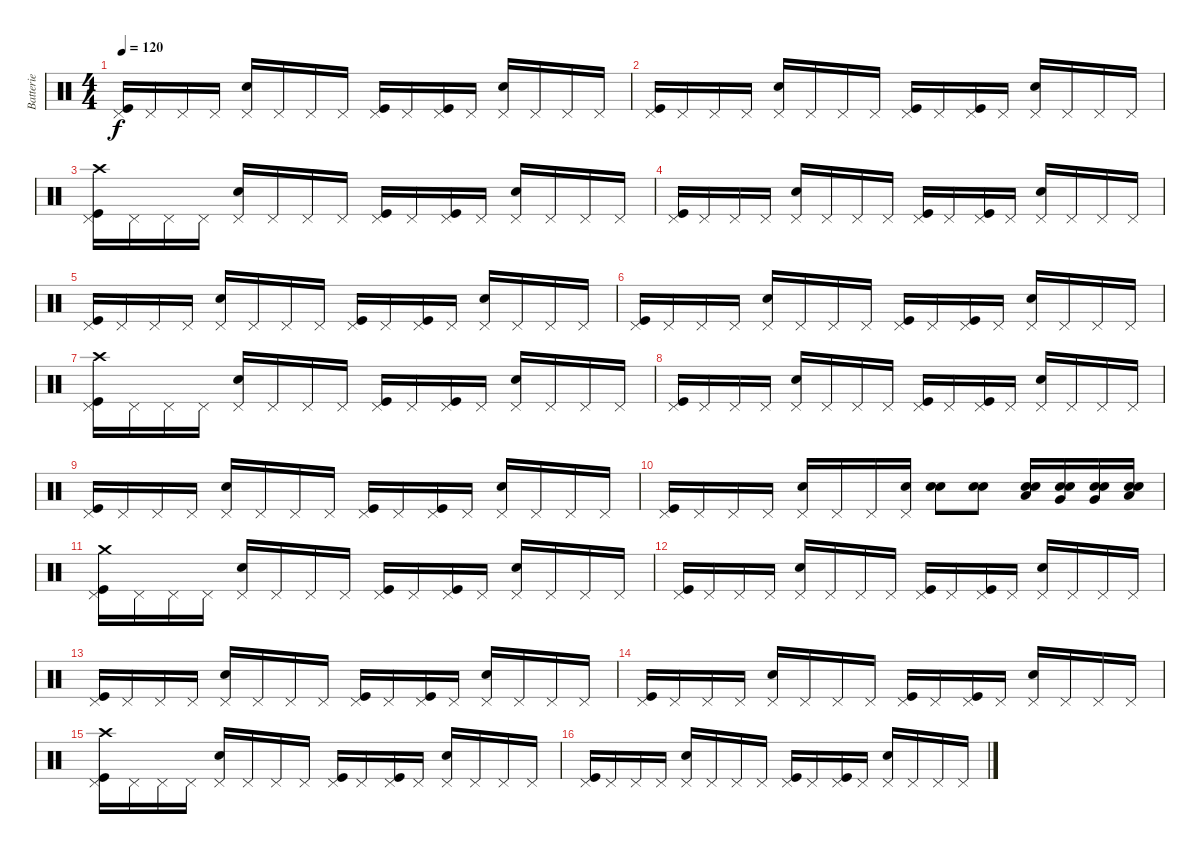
\track ("Batterie" "Batterie") {instrument percussion}
\staff {score}
\articulation defaults
\ts (4 4)
\tempo 120
\clef neutral
\ks c
("Pedal Hi-Hat (hit)" "Kick (hit)").16{dy f} "Pedal Hi-Hat (hit)".16 "Pedal Hi-Hat (hit)".16 "Pedal Hi-Hat (hit)".16 ("Electric Snare (hit)" "Pedal Hi-Hat (hit)").16 "Pedal Hi-Hat (hit)".16 "Pedal Hi-Hat (hit)".16 "Pedal Hi-Hat (hit)".16 ("Pedal Hi-Hat (hit)" "Kick (hit)").16 "Pedal Hi-Hat (hit)".16 ("Pedal Hi-Hat (hit)" "Kick (hit)").16 "Pedal Hi-Hat (hit)".16 ("Electric Snare (hit)" "Pedal Hi-Hat (hit)").16 "Pedal Hi-Hat (hit)".16 "Pedal Hi-Hat (hit)".16 "Pedal Hi-Hat (hit)".16 |
("Pedal Hi-Hat (hit)" "Kick (hit)").16 "Pedal Hi-Hat (hit)".16 "Pedal Hi-Hat (hit)".16 "Pedal Hi-Hat (hit)".16 ("Electric Snare (hit)" "Pedal Hi-Hat (hit)").16 "Pedal Hi-Hat (hit)".16 "Pedal Hi-Hat (hit)".16 "Pedal Hi-Hat (hit)".16 ("Pedal Hi-Hat (hit)" "Kick (hit)").16 "Pedal Hi-Hat (hit)".16 ("Pedal Hi-Hat (hit)" "Kick (hit)").16 "Pedal Hi-Hat (hit)".16 ("Electric Snare (hit)" "Pedal Hi-Hat (hit)").16 "Pedal Hi-Hat (hit)".16 "Pedal Hi-Hat (hit)".16 "Pedal Hi-Hat (hit)".16 |
("Crash high (hit)" "Pedal Hi-Hat (hit)" "Kick (hit)").16 "Pedal Hi-Hat (hit)".16 "Pedal Hi-Hat (hit)".16 "Pedal Hi-Hat (hit)".16 ("Electric Snare (hit)" "Pedal Hi-Hat (hit)").16 "Pedal Hi-Hat (hit)".16 "Pedal Hi-Hat (hit)".16 "Pedal Hi-Hat (hit)".16 ("Pedal Hi-Hat (hit)" "Kick (hit)").16 "Pedal Hi-Hat (hit)".16 ("Pedal Hi-Hat (hit)" "Kick (hit)").16 "Pedal Hi-Hat (hit)".16 ("Electric Snare (hit)" "Pedal Hi-Hat (hit)").16 "Pedal Hi-Hat (hit)".16 "Pedal Hi-Hat (hit)".16 "Pedal Hi-Hat (hit)".16 |
("Pedal Hi-Hat (hit)" "Kick (hit)").16 "Pedal Hi-Hat (hit)".16 "Pedal Hi-Hat (hit)".16 "Pedal Hi-Hat (hit)".16 ("Electric Snare (hit)" "Pedal Hi-Hat (hit)").16 "Pedal Hi-Hat (hit)".16 "Pedal Hi-Hat (hit)".16 "Pedal Hi-Hat (hit)".16 ("Pedal Hi-Hat (hit)" "Kick (hit)").16 "Pedal Hi-Hat (hit)".16 ("Pedal Hi-Hat (hit)" "Kick (hit)").16 "Pedal Hi-Hat (hit)".16 ("Electric Snare (hit)" "Pedal Hi-Hat (hit)").16 "Pedal Hi-Hat (hit)".16 "Pedal Hi-Hat (hit)".16 "Pedal Hi-Hat (hit)".16 |
("Pedal Hi-Hat (hit)" "Kick (hit)").16 "Pedal Hi-Hat (hit)".16 "Pedal Hi-Hat (hit)".16 "Pedal Hi-Hat (hit)".16 ("Electric Snare (hit)" "Pedal Hi-Hat (hit)").16 "Pedal Hi-Hat (hit)".16 "Pedal Hi-Hat (hit)".16 "Pedal Hi-Hat (hit)".16 ("Pedal Hi-Hat (hit)" "Kick (hit)").16 "Pedal Hi-Hat (hit)".16 ("Pedal Hi-Hat (hit)" "Kick (hit)").16 "Pedal Hi-Hat (hit)".16 ("Electric Snare (hit)" "Pedal Hi-Hat (hit)").16 "Pedal Hi-Hat (hit)".16 "Pedal Hi-Hat (hit)".16 "Pedal Hi-Hat (hit)".16 |
("Pedal Hi-Hat (hit)" "Kick (hit)").16 "Pedal Hi-Hat (hit)".16 "Pedal Hi-Hat (hit)".16 "Pedal Hi-Hat (hit)".16 ("Electric Snare (hit)" "Pedal Hi-Hat (hit)").16 "Pedal Hi-Hat (hit)".16 "Pedal Hi-Hat (hit)".16 "Pedal Hi-Hat (hit)".16 ("Pedal Hi-Hat (hit)" "Kick (hit)").16 "Pedal Hi-Hat (hit)".16 ("Pedal Hi-Hat (hit)" "Kick (hit)").16 "Pedal Hi-Hat (hit)".16 ("Electric Snare (hit)" "Pedal Hi-Hat (hit)").16 "Pedal Hi-Hat (hit)".16 "Pedal Hi-Hat (hit)".16 "Pedal Hi-Hat (hit)".16 |
("Crash high (hit)" "Pedal Hi-Hat (hit)" "Kick (hit)").16 "Pedal Hi-Hat (hit)".16 "Pedal Hi-Hat (hit)".16 "Pedal Hi-Hat (hit)".16 ("Electric Snare (hit)" "Pedal Hi-Hat (hit)").16 "Pedal Hi-Hat (hit)".16 "Pedal Hi-Hat (hit)".16 "Pedal Hi-Hat (hit)".16 ("Pedal Hi-Hat (hit)" "Kick (hit)").16 "Pedal Hi-Hat (hit)".16 ("Pedal Hi-Hat (hit)" "Kick (hit)").16 "Pedal Hi-Hat (hit)".16 ("Electric Snare (hit)" "Pedal Hi-Hat (hit)").16 "Pedal Hi-Hat (hit)".16 "Pedal Hi-Hat (hit)".16 "Pedal Hi-Hat (hit)".16 |
("Pedal Hi-Hat (hit)" "Kick (hit)").16 "Pedal Hi-Hat (hit)".16 "Pedal Hi-Hat (hit)".16 "Pedal Hi-Hat (hit)".16 ("Electric Snare (hit)" "Pedal Hi-Hat (hit)").16 "Pedal Hi-Hat (hit)".16 "Pedal Hi-Hat (hit)".16 "Pedal Hi-Hat (hit)".16 ("Pedal Hi-Hat (hit)" "Kick (hit)").16 "Pedal Hi-Hat (hit)".16 ("Pedal Hi-Hat (hit)" "Kick (hit)").16 "Pedal Hi-Hat (hit)".16 ("Electric Snare (hit)" "Pedal Hi-Hat (hit)").16 "Pedal Hi-Hat (hit)".16 "Pedal Hi-Hat (hit)".16 "Pedal Hi-Hat (hit)".16 |
("Pedal Hi-Hat (hit)" "Kick (hit)").16 "Pedal Hi-Hat (hit)".16 "Pedal Hi-Hat (hit)".16 "Pedal Hi-Hat (hit)".16 ("Electric Snare (hit)" "Pedal Hi-Hat (hit)").16 "Pedal Hi-Hat (hit)".16 "Pedal Hi-Hat (hit)".16 "Pedal Hi-Hat (hit)".16 ("Pedal Hi-Hat (hit)" "Kick (hit)").16 "Pedal Hi-Hat (hit)".16 ("Pedal Hi-Hat (hit)" "Kick (hit)").16 "Pedal Hi-Hat (hit)".16 ("Electric Snare (hit)" "Pedal Hi-Hat (hit)").16 "Pedal Hi-Hat (hit)".16 "Pedal Hi-Hat (hit)".16 "Pedal Hi-Hat (hit)".16 |
("Pedal Hi-Hat (hit)" "Kick (hit)").16 "Pedal Hi-Hat (hit)".16 "Pedal Hi-Hat (hit)".16 "Pedal Hi-Hat (hit)".16 ("Electric Snare (hit)" "Pedal Hi-Hat (hit)").16 "Pedal Hi-Hat (hit)".16 "Pedal Hi-Hat (hit)".16 ("Snare (hit) 2" "Pedal Hi-Hat (hit)").16 ("Electric Snare (hit)" "Snare (hit) 2").8 ("Electric Snare (hit)" "Snare (hit) 2").8 ("Electric Snare (hit)" "Snare (hit) 2" "Low Tom (hit)").16 ("Electric Snare (hit)" "Snare (hit) 2" "Very Low Tom (hit)").16 ("Electric Snare (hit)" "Snare (hit) 2" "Very Low Tom (hit)").16 ("Electric Snare (hit)" "Snare (hit) 2" "Low Floor Tom (hit)").16 |
("Crash medium (hit)" "Pedal Hi-Hat (hit)" "Kick (hit)").16 "Pedal Hi-Hat (hit)".16 "Pedal Hi-Hat (hit)".16 "Pedal Hi-Hat (hit)".16 ("Electric Snare (hit)" "Pedal Hi-Hat (hit)").16 "Pedal Hi-Hat (hit)".16 "Pedal Hi-Hat (hit)".16 "Pedal Hi-Hat (hit)".16 ("Pedal Hi-Hat (hit)" "Kick (hit)").16 "Pedal Hi-Hat (hit)".16 ("Pedal Hi-Hat (hit)" "Kick (hit)").16 "Pedal Hi-Hat (hit)".16 ("Electric Snare (hit)" "Pedal Hi-Hat (hit)").16 "Pedal Hi-Hat (hit)".16 "Pedal Hi-Hat (hit)".16 "Pedal Hi-Hat (hit)".16 |
("Pedal Hi-Hat (hit)" "Kick (hit)").16 "Pedal Hi-Hat (hit)".16 "Pedal Hi-Hat (hit)".16 "Pedal Hi-Hat (hit)".16 ("Electric Snare (hit)" "Pedal Hi-Hat (hit)").16 "Pedal Hi-Hat (hit)".16 "Pedal Hi-Hat (hit)".16 "Pedal Hi-Hat (hit)".16 ("Pedal Hi-Hat (hit)" "Kick (hit)").16 "Pedal Hi-Hat (hit)".16 ("Pedal Hi-Hat (hit)" "Kick (hit)").16 "Pedal Hi-Hat (hit)".16 ("Electric Snare (hit)" "Pedal Hi-Hat (hit)").16 "Pedal Hi-Hat (hit)".16 "Pedal Hi-Hat (hit)".16 "Pedal Hi-Hat (hit)".16 |
("Pedal Hi-Hat (hit)" "Kick (hit)").16 "Pedal Hi-Hat (hit)".16 "Pedal Hi-Hat (hit)".16 "Pedal Hi-Hat (hit)".16 ("Electric Snare (hit)" "Pedal Hi-Hat (hit)").16 "Pedal Hi-Hat (hit)".16 "Pedal Hi-Hat (hit)".16 "Pedal Hi-Hat (hit)".16 ("Pedal Hi-Hat (hit)" "Kick (hit)").16 "Pedal Hi-Hat (hit)".16 ("Pedal Hi-Hat (hit)" "Kick (hit)").16 "Pedal Hi-Hat (hit)".16 ("Electric Snare (hit)" "Pedal Hi-Hat (hit)").16 "Pedal Hi-Hat (hit)".16 "Pedal Hi-Hat (hit)".16 "Pedal Hi-Hat (hit)".16 |
("Pedal Hi-Hat (hit)" "Kick (hit)").16 "Pedal Hi-Hat (hit)".16 "Pedal Hi-Hat (hit)".16 "Pedal Hi-Hat (hit)".16 ("Electric Snare (hit)" "Pedal Hi-Hat (hit)").16 "Pedal Hi-Hat (hit)".16 "Pedal Hi-Hat (hit)".16 "Pedal Hi-Hat (hit)".16 ("Pedal Hi-Hat (hit)" "Kick (hit)").16 "Pedal Hi-Hat (hit)".16 ("Pedal Hi-Hat (hit)" "Kick (hit)").16 "Pedal Hi-Hat (hit)".16 ("Electric Snare (hit)" "Pedal Hi-Hat (hit)").16 "Pedal Hi-Hat (hit)".16 "Pedal Hi-Hat (hit)".16 "Pedal Hi-Hat (hit)".16 |
("Crash high (hit)" "Pedal Hi-Hat (hit)" "Kick (hit)").16 "Pedal Hi-Hat (hit)".16 "Pedal Hi-Hat (hit)".16 "Pedal Hi-Hat (hit)".16 ("Electric Snare (hit)" "Pedal Hi-Hat (hit)").16 "Pedal Hi-Hat (hit)".16 "Pedal Hi-Hat (hit)".16 "Pedal Hi-Hat (hit)".16 ("Pedal Hi-Hat (hit)" "Kick (hit)").16 "Pedal Hi-Hat (hit)".16 ("Pedal Hi-Hat (hit)" "Kick (hit)").16 "Pedal Hi-Hat (hit)".16 ("Electric Snare (hit)" "Pedal Hi-Hat (hit)").16 "Pedal Hi-Hat (hit)".16 "Pedal Hi-Hat (hit)".16 "Pedal Hi-Hat (hit)".16 |
("Pedal Hi-Hat (hit)" "Kick (hit)").16 "Pedal Hi-Hat (hit)".16 "Pedal Hi-Hat (hit)".16 "Pedal Hi-Hat (hit)".16 ("Electric Snare (hit)" "Pedal Hi-Hat (hit)").16 "Pedal Hi-Hat (hit)".16 "Pedal Hi-Hat (hit)".16 "Pedal Hi-Hat (hit)".16 ("Pedal Hi-Hat (hit)" "Kick (hit)").16 "Pedal Hi-Hat (hit)".16 ("Pedal Hi-Hat (hit)" "Kick (hit)").16 "Pedal Hi-Hat (hit)".16 ("Electric Snare (hit)" "Pedal Hi-Hat (hit)").16 "Pedal Hi-Hat (hit)".16 "Pedal Hi-Hat (hit)".16 "Pedal Hi-Hat (hit)".16
